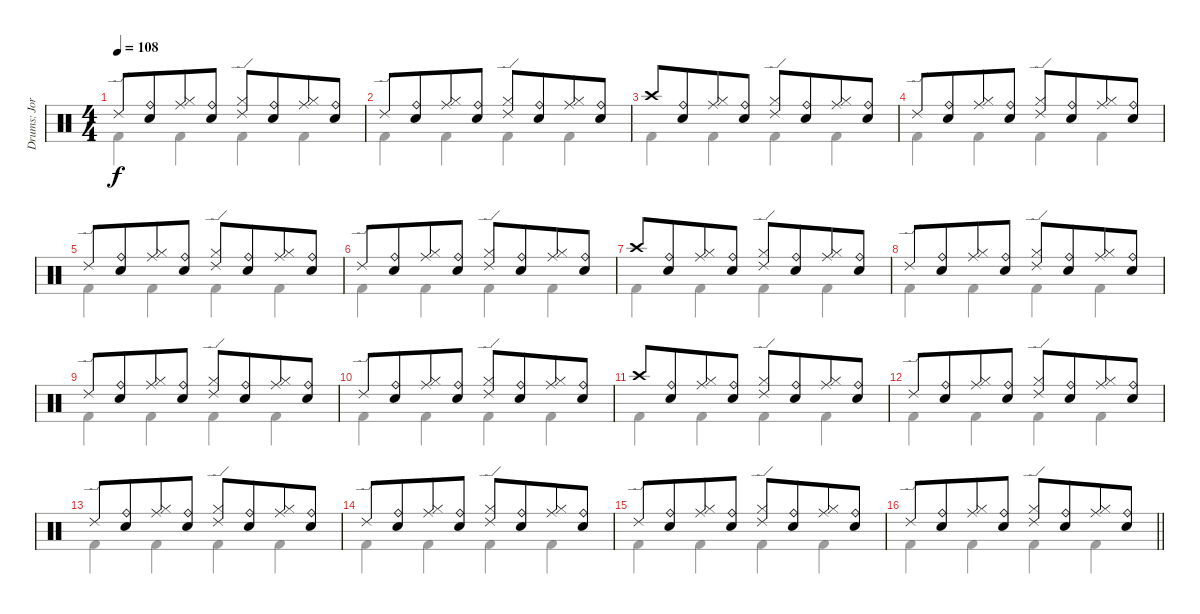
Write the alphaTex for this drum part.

\track ("Drums: Jorg" "Drums: Jor") {instrument percussion}
\staff {score}
\articulation defaults
\voice
\ts (4 4)
\tempo 108
\clef neutral
\ks c "Ride (edge) 2".8{dy f}
("Ride (bell)" "Snare (hit) 2").8{beam merge} ("Ride (middle)" "Hi-Hat (closed)").8 ("Ride (bell)" "Snare (hit) 2").8 ("Ride (edge) 2" "Hi-Hat (closed)").8 ("Ride (bell)" "Snare (hit) 2").8{beam merge} ("Ride (middle)" "Hi-Hat (closed)").8 ("Ride (bell)" "Snare (hit) 2").8 |
"Ride (edge) 2".8 ("Ride (bell)" "Snare (hit) 2").8{beam merge} ("Ride (middle)" "Hi-Hat (closed)").8 ("Ride (bell)" "Snare (hit) 2").8 ("Ride (edge) 2" "Hi-Hat (closed)").8 ("Ride (bell)" "Snare (hit) 2").8{beam merge} ("Ride (middle)" "Hi-Hat (closed)").8 ("Ride (bell)" "Snare (hit) 2").8 |
"Crash high (hit)".8 ("Ride (bell)" "Snare (hit) 2").8{beam merge} ("Ride (middle)" "Hi-Hat (closed)").8 ("Ride (bell)" "Snare (hit) 2").8 ("Ride (edge) 2" "Hi-Hat (closed)").8 ("Ride (bell)" "Snare (hit) 2").8{beam merge} ("Ride (middle)" "Hi-Hat (closed)").8 ("Ride (bell)" "Snare (hit) 2").8 |
"Ride (edge) 2".8 ("Ride (bell)" "Snare (hit) 2").8{beam merge} ("Ride (middle)" "Hi-Hat (closed)").8 ("Ride (bell)" "Snare (hit) 2").8 ("Ride (edge) 2" "Hi-Hat (closed)").8 ("Ride (bell)" "Snare (hit) 2").8{beam merge} ("Ride (middle)" "Hi-Hat (closed)").8 ("Ride (bell)" "Snare (hit) 2").8 |
"Ride (edge) 2".8 ("Ride (bell)" "Snare (hit) 2").8{beam merge} ("Ride (middle)" "Hi-Hat (closed)").8 ("Ride (bell)" "Snare (hit) 2").8 ("Ride (edge) 2" "Hi-Hat (closed)").8 ("Ride (bell)" "Snare (hit) 2").8{beam merge} ("Ride (middle)" "Hi-Hat (closed)").8 ("Ride (bell)" "Snare (hit) 2").8 |
"Ride (edge) 2".8 ("Ride (bell)" "Snare (hit) 2").8{beam merge} ("Ride (middle)" "Hi-Hat (closed)").8 ("Ride (bell)" "Snare (hit) 2").8 ("Ride (edge) 2" "Hi-Hat (closed)").8 ("Ride (bell)" "Snare (hit) 2").8{beam merge} ("Ride (middle)" "Hi-Hat (closed)").8 ("Ride (bell)" "Snare (hit) 2").8 |
"Crash high (hit)".8 ("Ride (bell)" "Snare (hit) 2").8{beam merge} ("Ride (middle)" "Hi-Hat (closed)").8 ("Ride (bell)" "Snare (hit) 2").8 ("Ride (edge) 2" "Hi-Hat (closed)").8 ("Ride (bell)" "Snare (hit) 2").8{beam merge} ("Ride (middle)" "Hi-Hat (closed)").8 ("Ride (bell)" "Snare (hit) 2").8 |
"Ride (edge) 2".8 ("Ride (bell)" "Snare (hit) 2").8{beam merge} ("Ride (middle)" "Hi-Hat (closed)").8 ("Ride (bell)" "Snare (hit) 2").8 ("Ride (edge) 2" "Hi-Hat (closed)").8 ("Ride (bell)" "Snare (hit) 2").8{beam merge} ("Ride (middle)" "Hi-Hat (closed)").8 ("Ride (bell)" "Snare (hit) 2").8 |
"Ride (edge) 2".8 ("Ride (bell)" "Snare (hit) 2").8{beam merge} ("Ride (middle)" "Hi-Hat (closed)").8 ("Ride (bell)" "Snare (hit) 2").8 ("Ride (edge) 2" "Hi-Hat (closed)").8 ("Ride (bell)" "Snare (hit) 2").8{beam merge} ("Ride (middle)" "Hi-Hat (closed)").8 ("Ride (bell)" "Snare (hit) 2").8 |
"Ride (edge) 2".8 ("Ride (bell)" "Snare (hit) 2").8{beam merge} ("Ride (middle)" "Hi-Hat (closed)").8 ("Ride (bell)" "Snare (hit) 2").8 ("Ride (edge) 2" "Hi-Hat (closed)").8 ("Ride (bell)" "Snare (hit) 2").8{beam merge} ("Ride (middle)" "Hi-Hat (closed)").8 ("Ride (bell)" "Snare (hit) 2").8 |
"Crash high (hit)".8 ("Ride (bell)" "Snare (hit) 2").8{beam merge} ("Ride (middle)" "Hi-Hat (closed)").8 ("Ride (bell)" "Snare (hit) 2").8 ("Ride (edge) 2" "Hi-Hat (closed)").8 ("Ride (bell)" "Snare (hit) 2").8{beam merge} ("Ride (middle)" "Hi-Hat (closed)").8 ("Ride (bell)" "Snare (hit) 2").8 |
"Ride (edge) 2".8 ("Ride (bell)" "Snare (hit) 2").8{beam merge} ("Ride (middle)" "Hi-Hat (closed)").8 ("Ride (bell)" "Snare (hit) 2").8 ("Ride (edge) 2" "Hi-Hat (closed)").8 ("Ride (bell)" "Snare (hit) 2").8{beam merge} ("Ride (middle)" "Hi-Hat (closed)").8 ("Ride (bell)" "Snare (hit) 2").8 |
"Ride (edge) 2".8 ("Ride (bell)" "Snare (hit) 2").8{beam merge} ("Ride (middle)" "Hi-Hat (closed)").8 ("Ride (bell)" "Snare (hit) 2").8 ("Ride (edge) 2" "Hi-Hat (closed)").8 ("Ride (bell)" "Snare (hit) 2").8{beam merge} ("Ride (middle)" "Hi-Hat (closed)").8 ("Ride (bell)" "Snare (hit) 2").8 |
"Ride (edge) 2".8 ("Ride (bell)" "Snare (hit) 2").8{beam merge} ("Ride (middle)" "Hi-Hat (closed)").8 ("Ride (bell)" "Snare (hit) 2").8 ("Ride (edge) 2" "Hi-Hat (closed)").8 ("Ride (bell)" "Snare (hit) 2").8{beam merge} ("Ride (middle)" "Hi-Hat (closed)").8 ("Ride (bell)" "Snare (hit) 2").8 |
"Ride (edge) 2".8 ("Ride (bell)" "Snare (hit) 2").8{beam merge} ("Ride (middle)" "Hi-Hat (closed)").8 ("Ride (bell)" "Snare (hit) 2").8 ("Ride (edge) 2" "Hi-Hat (closed)").8 ("Ride (bell)" "Snare (hit) 2").8{beam merge} ("Ride (middle)" "Hi-Hat (closed)").8 ("Ride (bell)" "Snare (hit) 2").8 |
\barLineRight lightlight "Ride (edge) 2".8
("Ride (bell)" "Snare (hit) 2").8{beam merge} ("Ride (middle)" "Hi-Hat (closed)").8 ("Ride (bell)" "Snare (hit) 2").8 ("Ride (edge) 2" "Hi-Hat (closed)").8 ("Ride (bell)" "Snare (hit) 2").8{beam merge} ("Ride (middle)" "Hi-Hat (closed)").8 ("Ride (bell)" "Snare (hit) 2").8
\voice
\clef neutral
\ottava regular
\simile none
\ks c "Kick (hit) 2".4{dy f} "Kick (hit) 2".4 "Kick (hit) 2".4 "Kick (hit) 2".4
|
"Kick (hit) 2".4 "Kick (hit) 2".4 "Kick (hit) 2".4 "Kick (hit) 2".4 |
"Kick (hit) 2".4 "Kick (hit) 2".4 "Kick (hit) 2".4 "Kick (hit) 2".4 |
"Kick (hit) 2".4 "Kick (hit) 2".4 "Kick (hit) 2".4 "Kick (hit) 2".4 |
"Kick (hit) 2".4 "Kick (hit) 2".4 "Kick (hit) 2".4 "Kick (hit) 2".4 |
"Kick (hit) 2".4 "Kick (hit) 2".4 "Kick (hit) 2".4 "Kick (hit) 2".4 |
"Kick (hit) 2".4 "Kick (hit) 2".4 "Kick (hit) 2".4 "Kick (hit) 2".4 |
"Kick (hit) 2".4 "Kick (hit) 2".4 "Kick (hit) 2".4 "Kick (hit) 2".4 |
"Kick (hit) 2".4 "Kick (hit) 2".4 "Kick (hit) 2".4 "Kick (hit) 2".4 |
"Kick (hit) 2".4 "Kick (hit) 2".4 "Kick (hit) 2".4 "Kick (hit) 2".4 |
"Kick (hit) 2".4 "Kick (hit) 2".4 "Kick (hit) 2".4 "Kick (hit) 2".4 |
"Kick (hit) 2".4 "Kick (hit) 2".4 "Kick (hit) 2".4 "Kick (hit) 2".4 |
"Kick (hit) 2".4 "Kick (hit) 2".4 "Kick (hit) 2".4 "Kick (hit) 2".4 |
"Kick (hit) 2".4 "Kick (hit) 2".4 "Kick (hit) 2".4 "Kick (hit) 2".4 |
"Kick (hit) 2".4 "Kick (hit) 2".4 "Kick (hit) 2".4 "Kick (hit) 2".4 |
\barLineRight lightlight "Kick (hit) 2".4 "Kick (hit) 2".4 "Kick (hit) 2".4 "Kick (hit) 2".4
